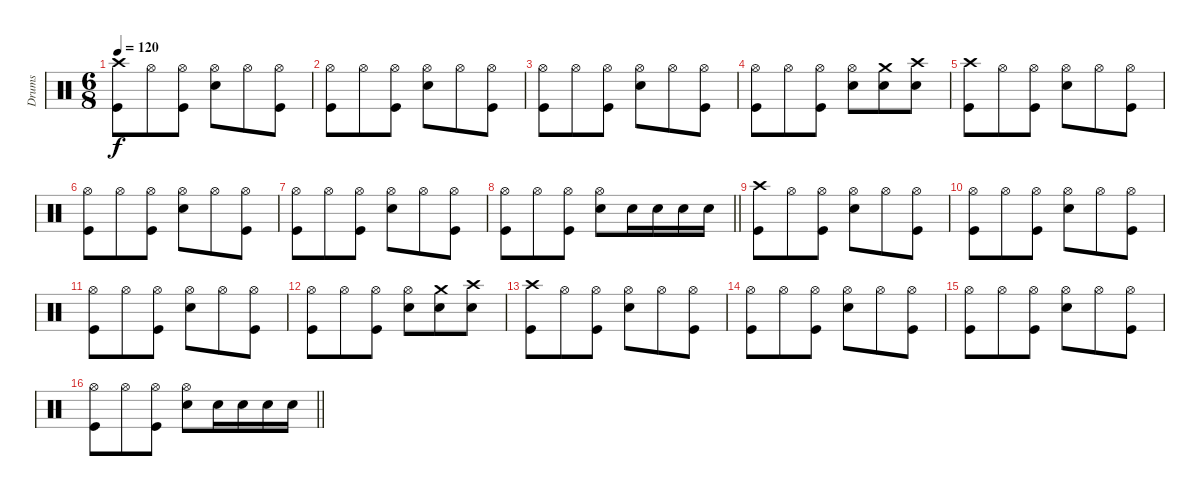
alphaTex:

\track ("Drums" "Drums") {instrument percussion}
\staff {score}
\articulation defaults
\ts (6 8)
\tempo 120
\clef neutral
\ks c
("Crash high (hit)" "Kick (hit)").8{dy f} "Hi-Hat (open)".8 ("Hi-Hat (open)" "Kick (hit)").8 ("Hi-Hat (open)" "Electric Snare (hit)").8 "Hi-Hat (open)".8 ("Hi-Hat (open)" "Kick (hit)").8 |
("Hi-Hat (open)" "Kick (hit)").8 "Hi-Hat (open)".8 ("Hi-Hat (open)" "Kick (hit)").8 ("Hi-Hat (open)" "Electric Snare (hit)").8 "Hi-Hat (open)".8 ("Hi-Hat (open)" "Kick (hit)").8 |
("Hi-Hat (open)" "Kick (hit)").8 "Hi-Hat (open)".8 ("Hi-Hat (open)" "Kick (hit)").8 ("Hi-Hat (open)" "Electric Snare (hit)").8 "Hi-Hat (open)".8 ("Hi-Hat (open)" "Kick (hit)").8 |
("Hi-Hat (open)" "Kick (hit)").8 "Hi-Hat (open)".8 ("Hi-Hat (open)" "Kick (hit)").8 ("Hi-Hat (open)" "Electric Snare (hit)").8 ("Crash medium (hit)" "Electric Snare (hit)").8 ("Crash high (hit)" "Electric Snare (hit)").8 |
("Crash high (hit)" "Kick (hit)").8 "Hi-Hat (open)".8 ("Hi-Hat (open)" "Kick (hit)").8 ("Hi-Hat (open)" "Electric Snare (hit)").8 "Hi-Hat (open)".8 ("Hi-Hat (open)" "Kick (hit)").8 |
("Hi-Hat (open)" "Kick (hit)").8 "Hi-Hat (open)".8 ("Hi-Hat (open)" "Kick (hit)").8 ("Hi-Hat (open)" "Electric Snare (hit)").8 "Hi-Hat (open)".8 ("Hi-Hat (open)" "Kick (hit)").8 |
("Hi-Hat (open)" "Kick (hit)").8 "Hi-Hat (open)".8 ("Hi-Hat (open)" "Kick (hit)").8 ("Hi-Hat (open)" "Electric Snare (hit)").8 "Hi-Hat (open)".8 ("Hi-Hat (open)" "Kick (hit)").8 |
\barLineRight lightlight
("Hi-Hat (open)" "Kick (hit)").8 "Hi-Hat (open)".8 ("Hi-Hat (open)" "Kick (hit)").8 ("Hi-Hat (open)" "Electric Snare (hit)").8 "Electric Snare (hit)".16 "Electric Snare (hit)".16 "Electric Snare (hit)".16 "Electric Snare (hit)".16 |
("Crash high (hit)" "Kick (hit)").8 "Hi-Hat (open)".8 ("Hi-Hat (open)" "Kick (hit)").8 ("Hi-Hat (open)" "Electric Snare (hit)").8 "Hi-Hat (open)".8 ("Hi-Hat (open)" "Kick (hit)").8 |
("Hi-Hat (open)" "Kick (hit)").8 "Hi-Hat (open)".8 ("Hi-Hat (open)" "Kick (hit)").8 ("Hi-Hat (open)" "Electric Snare (hit)").8 "Hi-Hat (open)".8 ("Hi-Hat (open)" "Kick (hit)").8 |
("Hi-Hat (open)" "Kick (hit)").8 "Hi-Hat (open)".8 ("Hi-Hat (open)" "Kick (hit)").8 ("Hi-Hat (open)" "Electric Snare (hit)").8 "Hi-Hat (open)".8 ("Hi-Hat (open)" "Kick (hit)").8 |
("Hi-Hat (open)" "Kick (hit)").8 "Hi-Hat (open)".8 ("Hi-Hat (open)" "Kick (hit)").8 ("Hi-Hat (open)" "Electric Snare (hit)").8 ("Crash medium (hit)" "Electric Snare (hit)").8 ("Crash high (hit)" "Electric Snare (hit)").8 |
("Crash high (hit)" "Kick (hit)").8 "Hi-Hat (open)".8 ("Hi-Hat (open)" "Kick (hit)").8 ("Hi-Hat (open)" "Electric Snare (hit)").8 "Hi-Hat (open)".8 ("Hi-Hat (open)" "Kick (hit)").8 |
("Hi-Hat (open)" "Kick (hit)").8 "Hi-Hat (open)".8 ("Hi-Hat (open)" "Kick (hit)").8 ("Hi-Hat (open)" "Electric Snare (hit)").8 "Hi-Hat (open)".8 ("Hi-Hat (open)" "Kick (hit)").8 |
("Hi-Hat (open)" "Kick (hit)").8 "Hi-Hat (open)".8 ("Hi-Hat (open)" "Kick (hit)").8 ("Hi-Hat (open)" "Electric Snare (hit)").8 "Hi-Hat (open)".8 ("Hi-Hat (open)" "Kick (hit)").8 |
\barLineRight lightlight
("Hi-Hat (open)" "Kick (hit)").8 "Hi-Hat (open)".8 ("Hi-Hat (open)" "Kick (hit)").8 ("Hi-Hat (open)" "Electric Snare (hit)").8 "Electric Snare (hit)".16 "Electric Snare (hit)".16 "Electric Snare (hit)".16 "Electric Snare (hit)".16
